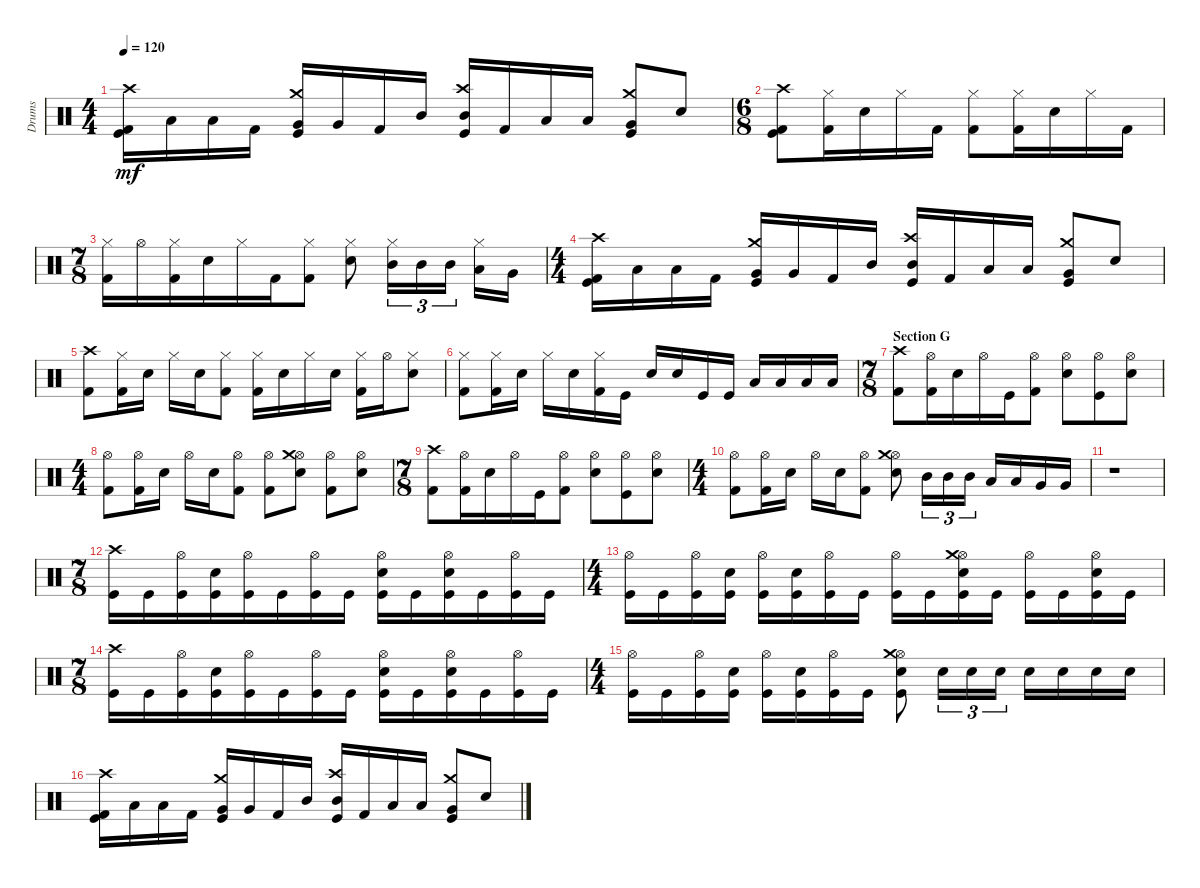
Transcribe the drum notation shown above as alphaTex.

\track ("Drums" "Drums") {instrument percussion}
\staff {score}
\articulation defaults
\ts (4 4)
\tempo 120
\clef neutral
\ks aminor
("Kick (hit)" "Kick (hit) 2" "Crash high (hit)").16{dy mf} "Low Tom (hit)".16 "Low Tom (hit)".16 "Kick (hit) 2".16 ("Crash medium (hit)" "Kick (hit)" "Very Low Tom (hit)").16 "Very Low Tom (hit)".16 "Kick (hit) 2".16 "Mid Tom (hit)".16 ("Kick (hit)" "Crash high (hit)" "Mid Tom (hit)").16 "Kick (hit) 2".16 "Low Tom (hit)".16 "Low Tom (hit)".16 ("Very Low Tom (hit)" "Kick (hit)" "Crash medium (hit)").8 "Snare (hit) 2".8 |
\ts (6 8)
("Kick (hit)" "Kick (hit) 2" "Crash high (hit)").8 ("Kick (hit) 2" "Hi-Hat (closed)").16 "Snare (hit) 2".16 "Hi-Hat (closed)".16 "Kick (hit) 2".16 ("Hi-Hat (closed)" "Kick (hit) 2").8 ("Hi-Hat (closed)" "Kick (hit) 2").16 "Snare (hit) 2".16 "Hi-Hat (closed)".16 "Kick (hit) 2".16 |
\ts (7 8)
("Kick (hit) 2" "Hi-Hat (closed)").16 "Hi-Hat (open)".16 ("Hi-Hat (closed)" "Kick (hit) 2").16 "Snare (hit) 2".16 "Hi-Hat (closed)".16 "Kick (hit) 2".16 ("Hi-Hat (closed)" "Kick (hit) 2").8 ("Snare (hit) 2" "Hi-Hat (closed)").8 ("Mid Tom (hit)" "Hi-Hat (closed)").16{tu (3 2)} "Mid Tom (hit)".16{tu (3 2)} "Mid Tom (hit)".16{tu (3 2)} ("Low Tom (hit)" "Hi-Hat (closed)").16 "Very Low Tom (hit)".16 |
\ts (4 4)
("Kick (hit)" "Kick (hit) 2" "Crash high (hit)").16 "Low Tom (hit)".16 "Low Tom (hit)".16 "Kick (hit) 2".16 ("Very Low Tom (hit)" "Kick (hit)" "Crash medium (hit)").16 "Very Low Tom (hit)".16 "Kick (hit) 2".16 "Mid Tom (hit)".16 ("Mid Tom (hit)" "Kick (hit)" "Crash high (hit)").16 "Kick (hit) 2".16 "Low Tom (hit)".16 "Low Tom (hit)".16 ("Kick (hit)" "Crash medium (hit)" "Very Low Tom (hit)").8 "Snare (hit) 2".8 |
("Kick (hit) 2" "Crash high (hit)").8 ("Kick (hit) 2" "Hi-Hat (closed)").16 "Snare (hit) 2".16 "Hi-Hat (closed)".16 "Snare (hit) 2".16 ("Hi-Hat (closed)" "Kick (hit) 2").8 ("Kick (hit) 2" "Hi-Hat (closed)").16 "Snare (hit) 2".16 "Hi-Hat (closed)".16 "Snare (hit) 2".16 ("Hi-Hat (closed)" "Kick (hit) 2").16 "Hi-Hat (open)".16 ("Snare (hit) 2" "Hi-Hat (closed)").8 |
("Kick (hit) 2" "Hi-Hat (closed)").8 ("Kick (hit) 2" "Hi-Hat (closed)").16 "Snare (hit) 2".16 "Hi-Hat (closed)".16 "Snare (hit) 2".16 ("Hi-Hat (closed)" "Kick (hit) 2").16 "Kick (hit)".16 "Snare (hit) 2".16 "Snare (hit) 2".16 "Kick (hit)".16 "Kick (hit)".16 "Low Tom (hit)".16 "Low Tom (hit)".16 "Low Floor Tom (hit)".16 "Low Floor Tom (hit)".16 |
\ts (7 8)
\section ("" "Section G")
("Crash high (hit)" "Kick (hit) 2").8 ("Hi-Hat (open)" "Kick (hit) 2").16 "Snare (hit) 2".16 "Hi-Hat (open)".16 "Kick (hit)".16 ("Hi-Hat (open)" "Kick (hit) 2").8 ("Hi-Hat (open)" "Snare (hit) 2").8 ("Hi-Hat (open)" "Kick (hit)").8 ("Snare (hit) 2" "Hi-Hat (open)").8 |
\ts (4 4)
("Kick (hit) 2" "Hi-Hat (open)").8 ("Hi-Hat (open)" "Kick (hit) 2").16 "Snare (hit) 2".16 "Hi-Hat (open)".16 "Snare (hit) 2".16 ("Kick (hit) 2" "Hi-Hat (open)").8 ("Hi-Hat (open)" "Kick (hit) 2").8 ("Hi-Hat (open)" "Snare (hit) 2" "Crash medium (hit)").8 ("Hi-Hat (open)" "Kick (hit) 2").8 ("Hi-Hat (open)" "Snare (hit) 2").8 |
\ts (7 8)
("Kick (hit) 2" "Crash high (hit)").8 ("Hi-Hat (open)" "Kick (hit) 2").16 "Snare (hit) 2".16 "Hi-Hat (open)".16 "Kick (hit)".16 ("Hi-Hat (open)" "Kick (hit) 2").8 ("Hi-Hat (open)" "Snare (hit) 2").8 ("Kick (hit)" "Hi-Hat (open)").8 ("Hi-Hat (open)" "Snare (hit) 2").8 |
\ts (4 4)
("Kick (hit) 2" "Hi-Hat (open)").8 ("Hi-Hat (open)" "Kick (hit) 2").16 "Snare (hit) 2".16 "Hi-Hat (open)".16 "Snare (hit) 2".16 ("Kick (hit) 2" "Hi-Hat (open)").8 ("Snare (hit) 2" "Hi-Hat (open)" "Crash medium (hit)").8 "Mid Tom (hit)".16{tu (3 2)} "Mid Tom (hit)".16{tu (3 2)} "Mid Tom (hit)".16{tu (3 2)} "Low Tom (hit)".16 "Low Tom (hit)".16 "Very Low Tom (hit)".16 "Very Low Tom (hit)".16 |
r.1 |
\ts (7 8)
("Kick (hit)" "Crash high (hit)").16 "Kick (hit)".16 ("Hi-Hat (open)" "Kick (hit)").16 ("Snare (hit) 2" "Kick (hit)").16 ("Kick (hit)" "Hi-Hat (open)").16 "Kick (hit)".16 ("Kick (hit)" "Hi-Hat (open)").16 "Kick (hit)".16 ("Hi-Hat (open)" "Kick (hit)" "Snare (hit) 2").16 "Kick (hit)".16 ("Kick (hit)" "Hi-Hat (open)" "Snare (hit) 2").16 "Kick (hit)".16 ("Hi-Hat (open)" "Kick (hit)").16 "Kick (hit)".16 |
\ts (4 4)
("Hi-Hat (open)" "Kick (hit)").16 "Kick (hit)".16 ("Kick (hit)" "Hi-Hat (open)").16 ("Kick (hit)" "Snare (hit) 2").16 ("Kick (hit)" "Hi-Hat (open)").16 ("Kick (hit)" "Snare (hit) 2").16 ("Kick (hit)" "Hi-Hat (open)").16 "Kick (hit)".16 ("Hi-Hat (open)" "Kick (hit)").16 "Kick (hit)".16 ("Hi-Hat (open)" "Crash medium (hit)" "Snare (hit) 2" "Kick (hit)").16 "Kick (hit)".16 ("Hi-Hat (open)" "Kick (hit)").16 "Kick (hit)".16 ("Snare (hit) 2" "Kick (hit)" "Hi-Hat (open)").16 "Kick (hit)".16 |
\ts (7 8)
("Kick (hit)" "Crash high (hit)").16 "Kick (hit)".16 ("Hi-Hat (open)" "Kick (hit)").16 ("Kick (hit)" "Snare (hit) 2").16 ("Hi-Hat (open)" "Kick (hit)").16 "Kick (hit)".16 ("Hi-Hat (open)" "Kick (hit)").16 "Kick (hit)".16 ("Hi-Hat (open)" "Kick (hit)" "Snare (hit) 2").16 "Kick (hit)".16 ("Kick (hit)" "Hi-Hat (open)" "Snare (hit) 2").16 "Kick (hit)".16 ("Hi-Hat (open)" "Kick (hit)").16 "Kick (hit)".16 |
\ts (4 4)
("Hi-Hat (open)" "Kick (hit)").16 "Kick (hit)".16 ("Kick (hit)" "Hi-Hat (open)").16 ("Snare (hit) 2" "Kick (hit)").16 ("Kick (hit)" "Hi-Hat (open)").16 ("Snare (hit) 2" "Kick (hit)").16 ("Hi-Hat (open)" "Kick (hit)").16 "Kick (hit)".16 ("Hi-Hat (open)" "Snare (hit) 2" "Kick (hit)" "Crash medium (hit)").8 "Snare (hit) 2".16{tu (3 2)} "Snare (hit) 2".16{tu (3 2)} "Snare (hit) 2".16{tu (3 2)} "Snare (hit) 2".16 "Snare (hit) 2".16 "Snare (hit) 2".16 "Snare (hit) 2".16 |
("Kick (hit)" "Crash high (hit)" "Kick (hit) 2").16 "Low Tom (hit)".16 "Low Tom (hit)".16 "Kick (hit) 2".16 ("Very Low Tom (hit)" "Crash medium (hit)" "Kick (hit)").16 "Very Low Tom (hit)".16 "Kick (hit) 2".16 "Mid Tom (hit)".16 ("Mid Tom (hit)" "Kick (hit)" "Crash high (hit)").16 "Kick (hit) 2".16 "Low Tom (hit)".16 "Low Tom (hit)".16 ("Crash medium (hit)" "Very Low Tom (hit)" "Kick (hit)").8 "Snare (hit) 2".8
